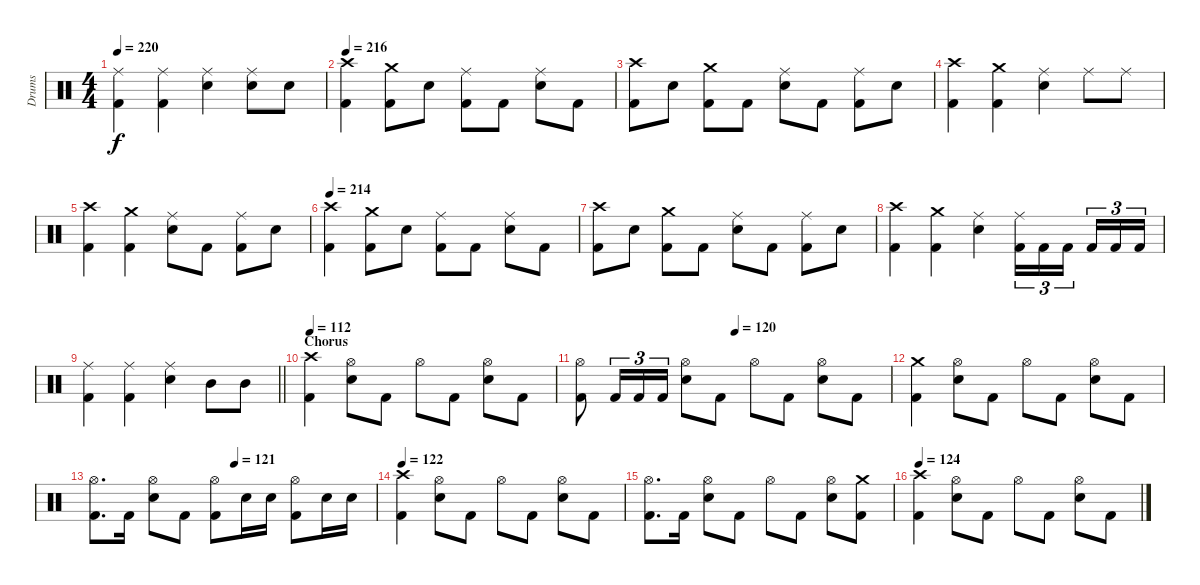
\track ("Drums" "Drums") {instrument percussion}
\staff {score}
\articulation defaults
\ts (4 4)
\tempo 220
\clef neutral
\ks c
("Ride (middle)" "Kick (hit) 2").4{dy f} ("Ride (middle)" "Kick (hit) 2").4 ("Ride (middle)" "Snare (hit) 2").4 ("Ride (middle)" "Snare (hit) 2").8 "Snare (hit) 2".8 |
\tempo 216
("Crash high (hit)" "Kick (hit) 2").4 ("Crash medium (hit)" "Kick (hit) 2").8 "Snare (hit) 2".8 ("Ride (middle)" "Kick (hit) 2").8 "Kick (hit) 2".8 ("Ride (middle)" "Snare (hit) 2").8 "Kick (hit) 2".8 |
("Crash high (hit)" "Kick (hit) 2").8 "Snare (hit) 2".8 ("Crash medium (hit)" "Kick (hit) 2").8 "Kick (hit) 2".8 ("Ride (middle)" "Snare (hit) 2").8 "Kick (hit) 2".8 ("Ride (middle)" "Kick (hit) 2").8 "Snare (hit) 2".8 |
("Crash high (hit)" "Kick (hit) 2").4 ("Crash medium (hit)" "Kick (hit) 2").4 ("Ride (middle)" "Snare (hit) 2").4 "Ride (middle)".8 "Ride (middle)".8 |
("Crash high (hit)" "Kick (hit) 2").4 ("Crash medium (hit)" "Kick (hit) 2").4 ("Ride (middle)" "Snare (hit) 2").8 "Kick (hit) 2".8 ("Ride (middle)" "Kick (hit) 2").8 "Snare (hit) 2".8 |
\tempo 214
("Crash high (hit)" "Kick (hit) 2").4 ("Crash medium (hit)" "Kick (hit) 2").8 "Snare (hit) 2".8 ("Ride (middle)" "Kick (hit) 2").8 "Kick (hit) 2".8 ("Ride (middle)" "Snare (hit) 2").8 "Kick (hit) 2".8 |
("Crash high (hit)" "Kick (hit) 2").8 "Snare (hit) 2".8 ("Crash medium (hit)" "Kick (hit) 2").8 "Kick (hit) 2".8 ("Ride (middle)" "Snare (hit) 2").8 "Kick (hit) 2".8 ("Ride (middle)" "Kick (hit) 2").8 "Snare (hit) 2".8 |
("Crash high (hit)" "Kick (hit) 2").4 ("Crash medium (hit)" "Kick (hit) 2").4 ("Ride (middle)" "Snare (hit) 2").4 ("Ride (middle)" "Kick (hit) 2").16{tu (3 2)} "Kick (hit) 2".16{tu (3 2)} "Kick (hit) 2".16{tu (3 2) beam splitsecondary} "Kick (hit) 2".16{tu (3 2)} "Kick (hit) 2".16{tu (3 2)} "Kick (hit) 2".16{tu (3 2)} |
\barLineRight lightlight
("Ride (middle)" "Kick (hit) 2").4 ("Ride (middle)" "Kick (hit) 2").4 ("Ride (middle)" "Snare (hit) 2").4 "Mid Tom (hit)".8 "Mid Tom (hit)".8 |
\section ("" "Chorus")
\tempo 112
("Crash high (hit)" "Kick (hit) 2").4 ("Hi-Hat (open)" "Snare (hit) 2").8 "Kick (hit) 2".8 "Hi-Hat (open)".8 "Kick (hit) 2".8 ("Hi-Hat (open)" "Snare (hit) 2").8 "Kick (hit) 2".8 |
\tempo (120 0.5)
("Hi-Hat (open)" "Kick (hit) 2").8 "Kick (hit) 2".16{tu (3 2)} "Kick (hit) 2".16{tu (3 2)} "Kick (hit) 2".16{tu (3 2)} ("Hi-Hat (open)" "Snare (hit) 2").8 "Kick (hit) 2".8 "Hi-Hat (open)".8 "Kick (hit) 2".8 ("Hi-Hat (open)" "Snare (hit) 2").8 "Kick (hit) 2".8 |
("Crash medium (hit)" "Kick (hit) 2").4 ("Hi-Hat (open)" "Snare (hit) 2").8 "Kick (hit) 2".8 "Hi-Hat (open)".8 "Kick (hit) 2".8 ("Hi-Hat (open)" "Snare (hit) 2").8 "Kick (hit) 2".8 |
\tempo (121 0.5)
("Hi-Hat (open)" "Kick (hit) 2").8{d} "Kick (hit) 2".16 ("Hi-Hat (open)" "Snare (hit) 2").8 "Kick (hit) 2".8 ("Hi-Hat (open)" "Kick (hit) 2").8 "Snare (hit) 2".16 "Snare (hit) 2".16 ("Hi-Hat (open)" "Kick (hit) 2").8 "Snare (hit) 2".16 "Snare (hit) 2".16 |
\tempo 122
("Crash high (hit)" "Kick (hit) 2").4 ("Hi-Hat (open)" "Snare (hit) 2").8 "Kick (hit) 2".8 "Hi-Hat (open)".8 "Kick (hit) 2".8 ("Hi-Hat (open)" "Snare (hit) 2").8 "Kick (hit) 2".8 |
("Hi-Hat (open)" "Kick (hit) 2").8{d} "Kick (hit) 2".16 ("Hi-Hat (open)" "Snare (hit) 2").8 "Kick (hit) 2".8 "Hi-Hat (open)".8 "Kick (hit) 2".8 ("Hi-Hat (open)" "Snare (hit) 2").8 ("Crash medium (hit)" "Kick (hit) 2").8 |
\tempo 124
("Crash high (hit)" "Kick (hit) 2").4 ("Hi-Hat (open)" "Snare (hit) 2").8 "Kick (hit) 2".8 "Hi-Hat (open)".8 "Kick (hit) 2".8 ("Hi-Hat (open)" "Snare (hit) 2").8 "Kick (hit) 2".8
